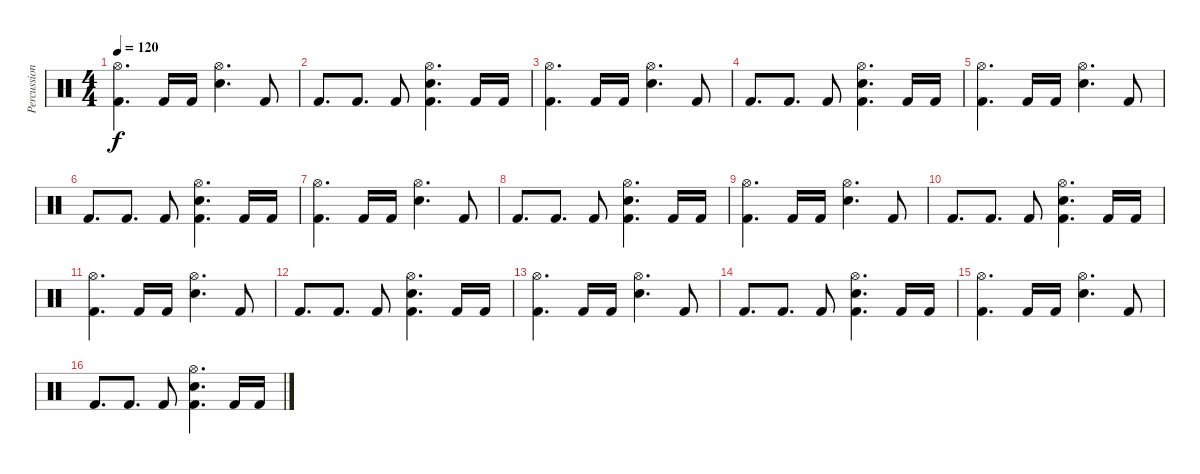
\track ("Percussions" "Percussion") {instrument percussion}
\staff {score}
\articulation defaults
\ts (4 4)
\tempo 120
\clef neutral
\ks c
("Hi-Hat (open)" "Kick (hit) 2").4{d dy f} "Kick (hit) 2".16 "Kick (hit) 2".16 ("Hi-Hat (open)" "Snare (hit) 2").4{d} "Kick (hit) 2".8 |
"Kick (hit) 2".8{d} "Kick (hit) 2".8{d} "Kick (hit) 2".8 ("Hi-Hat (open)" "Kick (hit) 2" "Snare (hit) 2").4{d} "Kick (hit) 2".16 "Kick (hit) 2".16 |
("Hi-Hat (open)" "Kick (hit) 2").4{d} "Kick (hit) 2".16 "Kick (hit) 2".16 ("Hi-Hat (open)" "Snare (hit) 2").4{d} "Kick (hit) 2".8 |
"Kick (hit) 2".8{d} "Kick (hit) 2".8{d} "Kick (hit) 2".8 ("Hi-Hat (open)" "Kick (hit) 2" "Snare (hit) 2").4{d} "Kick (hit) 2".16 "Kick (hit) 2".16 |
("Hi-Hat (open)" "Kick (hit) 2").4{d} "Kick (hit) 2".16 "Kick (hit) 2".16 ("Hi-Hat (open)" "Snare (hit) 2").4{d} "Kick (hit) 2".8 |
"Kick (hit) 2".8{d} "Kick (hit) 2".8{d} "Kick (hit) 2".8 ("Hi-Hat (open)" "Kick (hit) 2" "Snare (hit) 2").4{d} "Kick (hit) 2".16 "Kick (hit) 2".16 |
("Hi-Hat (open)" "Kick (hit) 2").4{d} "Kick (hit) 2".16 "Kick (hit) 2".16 ("Hi-Hat (open)" "Snare (hit) 2").4{d} "Kick (hit) 2".8 |
"Kick (hit) 2".8{d} "Kick (hit) 2".8{d} "Kick (hit) 2".8 ("Hi-Hat (open)" "Kick (hit) 2" "Snare (hit) 2").4{d} "Kick (hit) 2".16 "Kick (hit) 2".16 |
("Hi-Hat (open)" "Kick (hit) 2").4{d} "Kick (hit) 2".16 "Kick (hit) 2".16 ("Hi-Hat (open)" "Snare (hit) 2").4{d} "Kick (hit) 2".8 |
"Kick (hit) 2".8{d} "Kick (hit) 2".8{d} "Kick (hit) 2".8 ("Hi-Hat (open)" "Kick (hit) 2" "Snare (hit) 2").4{d} "Kick (hit) 2".16 "Kick (hit) 2".16 |
("Hi-Hat (open)" "Kick (hit) 2").4{d} "Kick (hit) 2".16 "Kick (hit) 2".16 ("Hi-Hat (open)" "Snare (hit) 2").4{d} "Kick (hit) 2".8 |
"Kick (hit) 2".8{d} "Kick (hit) 2".8{d} "Kick (hit) 2".8 ("Hi-Hat (open)" "Kick (hit) 2" "Snare (hit) 2").4{d} "Kick (hit) 2".16 "Kick (hit) 2".16 |
("Hi-Hat (open)" "Kick (hit) 2").4{d} "Kick (hit) 2".16 "Kick (hit) 2".16 ("Hi-Hat (open)" "Snare (hit) 2").4{d} "Kick (hit) 2".8 |
"Kick (hit) 2".8{d} "Kick (hit) 2".8{d} "Kick (hit) 2".8 ("Hi-Hat (open)" "Kick (hit) 2" "Snare (hit) 2").4{d} "Kick (hit) 2".16 "Kick (hit) 2".16 |
("Hi-Hat (open)" "Kick (hit) 2").4{d} "Kick (hit) 2".16 "Kick (hit) 2".16 ("Hi-Hat (open)" "Snare (hit) 2").4{d} "Kick (hit) 2".8 |
"Kick (hit) 2".8{d} "Kick (hit) 2".8{d} "Kick (hit) 2".8 ("Hi-Hat (open)" "Kick (hit) 2" "Snare (hit) 2").4{d} "Kick (hit) 2".16 "Kick (hit) 2".16
